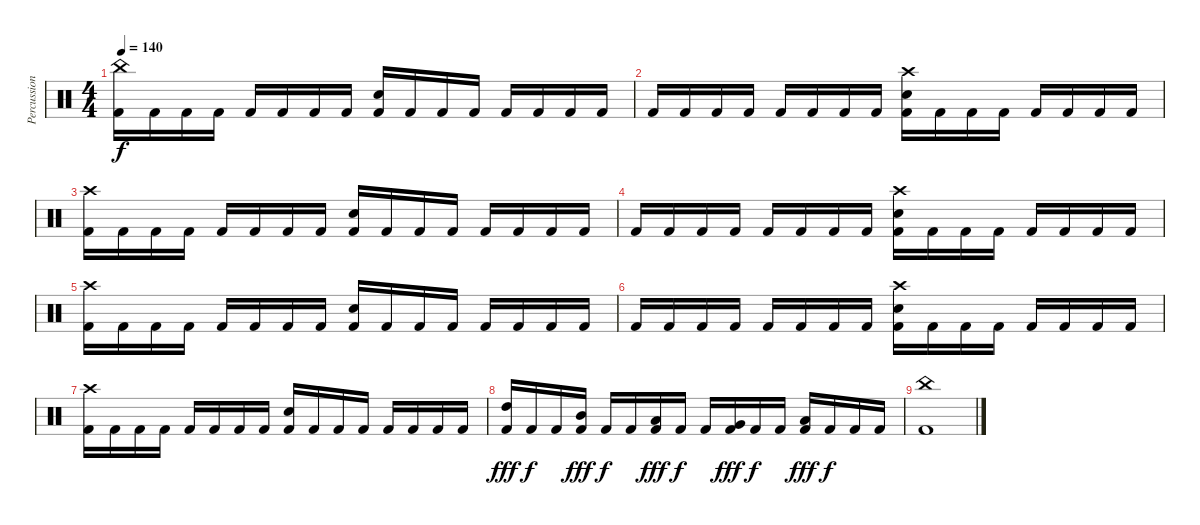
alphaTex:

\track ("Percussion" "Percussion") {instrument percussion}
\staff {score}
\articulation defaults
\ts (4 4)
\tempo 140
\clef neutral
\ks c
("China (hit)" "Kick (hit) 2").16{dy f} "Kick (hit) 2".16 "Kick (hit) 2".16 "Kick (hit) 2".16 "Kick (hit) 2".16 "Kick (hit) 2".16 "Kick (hit) 2".16 "Kick (hit) 2".16 ("Snare (hit) 2" "Kick (hit) 2").16 "Kick (hit) 2".16 "Kick (hit) 2".16 "Kick (hit) 2".16 "Kick (hit) 2".16 "Kick (hit) 2".16 "Kick (hit) 2".16 "Kick (hit) 2".16 |
"Kick (hit) 2".16 "Kick (hit) 2".16 "Kick (hit) 2".16 "Kick (hit) 2".16 "Kick (hit) 2".16 "Kick (hit) 2".16 "Kick (hit) 2".16 "Kick (hit) 2".16 ("Crash high (hit)" "Snare (hit) 2" "Kick (hit) 2").16 "Kick (hit) 2".16 "Kick (hit) 2".16 "Kick (hit) 2".16 "Kick (hit) 2".16 "Kick (hit) 2".16 "Kick (hit) 2".16 "Kick (hit) 2".16 |
("Crash high (hit)" "Kick (hit) 2").16 "Kick (hit) 2".16 "Kick (hit) 2".16 "Kick (hit) 2".16 "Kick (hit) 2".16 "Kick (hit) 2".16 "Kick (hit) 2".16 "Kick (hit) 2".16 ("Snare (hit) 2" "Kick (hit) 2").16 "Kick (hit) 2".16 "Kick (hit) 2".16 "Kick (hit) 2".16 "Kick (hit) 2".16 "Kick (hit) 2".16 "Kick (hit) 2".16 "Kick (hit) 2".16 |
"Kick (hit) 2".16 "Kick (hit) 2".16 "Kick (hit) 2".16 "Kick (hit) 2".16 "Kick (hit) 2".16 "Kick (hit) 2".16 "Kick (hit) 2".16 "Kick (hit) 2".16 ("Crash high (hit)" "Snare (hit) 2" "Kick (hit) 2").16 "Kick (hit) 2".16 "Kick (hit) 2".16 "Kick (hit) 2".16 "Kick (hit) 2".16 "Kick (hit) 2".16 "Kick (hit) 2".16 "Kick (hit) 2".16 |
("Crash high (hit)" "Kick (hit) 2").16 "Kick (hit) 2".16 "Kick (hit) 2".16 "Kick (hit) 2".16 "Kick (hit) 2".16 "Kick (hit) 2".16 "Kick (hit) 2".16 "Kick (hit) 2".16 ("Snare (hit) 2" "Kick (hit) 2").16 "Kick (hit) 2".16 "Kick (hit) 2".16 "Kick (hit) 2".16 "Kick (hit) 2".16 "Kick (hit) 2".16 "Kick (hit) 2".16 "Kick (hit) 2".16 |
"Kick (hit) 2".16 "Kick (hit) 2".16 "Kick (hit) 2".16 "Kick (hit) 2".16 "Kick (hit) 2".16 "Kick (hit) 2".16 "Kick (hit) 2".16 "Kick (hit) 2".16 ("Crash high (hit)" "Snare (hit) 2" "Kick (hit) 2").16 "Kick (hit) 2".16 "Kick (hit) 2".16 "Kick (hit) 2".16 "Kick (hit) 2".16 "Kick (hit) 2".16 "Kick (hit) 2".16 "Kick (hit) 2".16 |
("Crash high (hit)" "Kick (hit) 2").16 "Kick (hit) 2".16 "Kick (hit) 2".16 "Kick (hit) 2".16 "Kick (hit) 2".16 "Kick (hit) 2".16 "Kick (hit) 2".16 "Kick (hit) 2".16 ("Snare (hit) 2" "Kick (hit) 2").16 "Kick (hit) 2".16 "Kick (hit) 2".16 "Kick (hit) 2".16 "Kick (hit) 2".16 "Kick (hit) 2".16 "Kick (hit) 2".16 "Kick (hit) 2".16 |
("High Tom (hit)" "Kick (hit) 2").16{dy fff} "Kick (hit) 2".16{dy f} "Kick (hit) 2".16 ("Mid Tom (hit)" "Kick (hit) 2").16{dy fff} "Kick (hit) 2".16{dy f} "Kick (hit) 2".16 ("Low Tom (hit)" "Kick (hit) 2").16{dy fff} "Kick (hit) 2".16{dy f} "Kick (hit) 2".16 ("Very Low Tom (hit)" "Kick (hit) 2").16{dy fff} "Kick (hit) 2".16{dy f} "Kick (hit) 2".16 ("Low Floor Tom (hit)" "Kick (hit) 2").16{dy fff} "Kick (hit) 2".16{dy f} "Kick (hit) 2".16 "Kick (hit) 2".16 |
("China (hit)" "Kick (hit) 2").1
